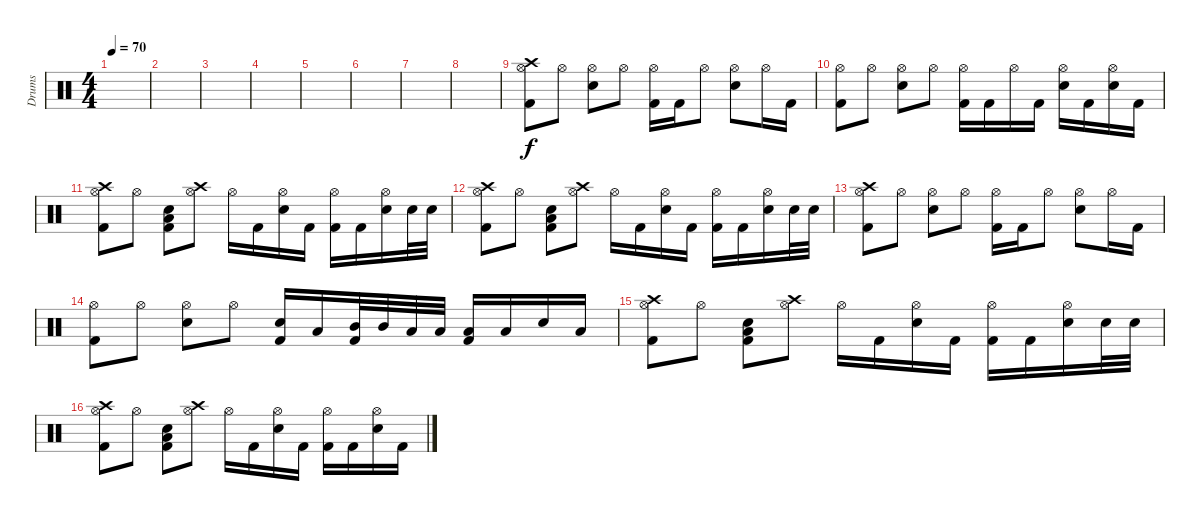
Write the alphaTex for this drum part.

\track ("Drums" "Drums") {instrument percussion}
\staff {score}
\articulation defaults
\ts (4 4)
\tempo 70
\clef neutral
\ks c
|
|
|
|
|
|
|
|
("Crash high (hit)" "Hi-Hat (open)" "Kick (hit) 2").8 "Hi-Hat (open)".8 ("Hi-Hat (open)" "Electric Snare (hit)").8 "Hi-Hat (open)".8 ("Hi-Hat (open)" "Kick (hit) 2").16 "Kick (hit) 2".16 "Hi-Hat (open)".8 ("Hi-Hat (open)" "Electric Snare (hit)").8 "Hi-Hat (open)".16 "Kick (hit) 2".16 |
("Hi-Hat (open)" "Kick (hit) 2").8 "Hi-Hat (open)".8 ("Hi-Hat (open)" "Electric Snare (hit)").8 "Hi-Hat (open)".8 ("Hi-Hat (open)" "Kick (hit) 2").16 "Kick (hit) 2".16 "Hi-Hat (open)".16 "Kick (hit) 2".16 ("Hi-Hat (open)" "Electric Snare (hit)").16 "Kick (hit) 2".16 ("Hi-Hat (open)" "Electric Snare (hit)").16 "Kick (hit) 2".16 |
("Crash high (hit)" "Hi-Hat (open)" "Kick (hit) 2").8 "Hi-Hat (open)".8 ("Low Floor Tom (hit)" "Electric Snare (hit)" "Kick (hit) 2").8 ("Crash high (hit)" "Hi-Hat (open)").8 "Hi-Hat (open)".16 "Kick (hit) 2".16 ("Hi-Hat (open)" "Electric Snare (hit)").16 "Kick (hit) 2".16 ("Hi-Hat (open)" "Kick (hit) 2").16 "Kick (hit) 2".16 ("Hi-Hat (open)" "Electric Snare (hit)").16 "Electric Snare (hit)".32 "Electric Snare (hit)".32 |
("Crash high (hit)" "Hi-Hat (open)" "Kick (hit) 2").8 "Hi-Hat (open)".8 ("Low Floor Tom (hit)" "Electric Snare (hit)" "Kick (hit) 2").8 ("Crash high (hit)" "Hi-Hat (open)").8 "Hi-Hat (open)".16 "Kick (hit) 2".16 ("Hi-Hat (open)" "Electric Snare (hit)").16 "Kick (hit) 2".16 ("Hi-Hat (open)" "Kick (hit) 2").16 "Kick (hit) 2".16 ("Hi-Hat (open)" "Electric Snare (hit)").16 "Electric Snare (hit)".32 "Electric Snare (hit)".32 |
("Crash high (hit)" "Hi-Hat (open)" "Kick (hit) 2").8 "Hi-Hat (open)".8 ("Hi-Hat (open)" "Electric Snare (hit)").8 "Hi-Hat (open)".8 ("Hi-Hat (open)" "Kick (hit) 2").16 "Kick (hit) 2".16 "Hi-Hat (open)".8 ("Hi-Hat (open)" "Electric Snare (hit)").8 "Hi-Hat (open)".16 "Kick (hit) 2".16 |
("Hi-Hat (open)" "Kick (hit) 2").8 "Hi-Hat (open)".8 ("Hi-Hat (open)" "Electric Snare (hit)").8 "Hi-Hat (open)".8 ("Electric Snare (hit)" "Kick (hit) 2").16 "Low Tom (hit)".16 ("Mid Tom (hit)" "Kick (hit) 2").32 "Mid Tom (hit)".32 "Low Tom (hit)".32 "Low Tom (hit)".32 ("Low Tom (hit)" "Kick (hit) 2").16 "Low Tom (hit)".16 "Electric Snare (hit)".16 "Low Tom (hit)".16 |
("Crash high (hit)" "Hi-Hat (open)" "Kick (hit) 2").8 "Hi-Hat (open)".8 ("Low Floor Tom (hit)" "Electric Snare (hit)" "Kick (hit) 2").8 ("Crash high (hit)" "Hi-Hat (open)").8 "Hi-Hat (open)".16 "Kick (hit) 2".16 ("Hi-Hat (open)" "Electric Snare (hit)").16 "Kick (hit) 2".16 ("Hi-Hat (open)" "Kick (hit) 2").16 "Kick (hit) 2".16 ("Hi-Hat (open)" "Electric Snare (hit)").16 "Electric Snare (hit)".32 "Electric Snare (hit)".32 |
("Crash high (hit)" "Hi-Hat (open)" "Kick (hit) 2").8 "Hi-Hat (open)".8 ("Low Floor Tom (hit)" "Electric Snare (hit)" "Kick (hit) 2").8 ("Crash high (hit)" "Hi-Hat (open)").8 "Hi-Hat (open)".16 "Kick (hit) 2".16 ("Hi-Hat (open)" "Electric Snare (hit)").16 "Kick (hit) 2".16 ("Hi-Hat (open)" "Kick (hit) 2").16 "Kick (hit) 2".16 ("Hi-Hat (open)" "Electric Snare (hit)").16 "Kick (hit) 2".16
